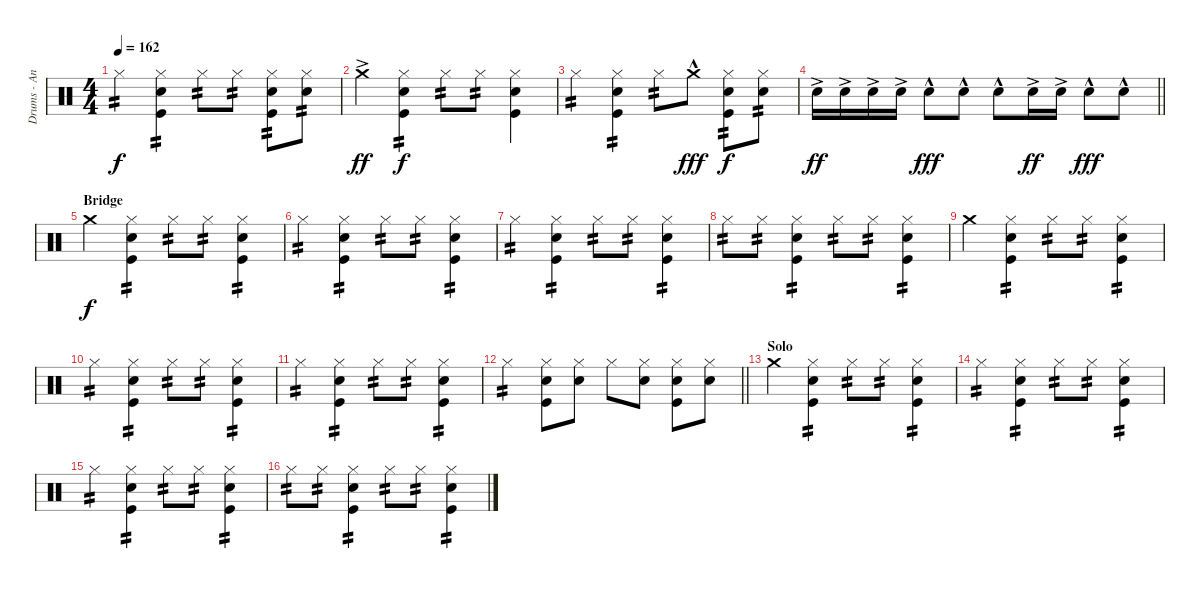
\track ("Drums - Andriushkin" "Drums - An") {instrument percussion}
\staff {score}
\articulation defaults
\ts (4 4)
\tempo 162
\clef neutral
\ks c "Hi-Hat (closed)".4{tp 2 dy f}
("Hi-Hat (closed)" "Electric Snare (hit)" "Kick (hit)").4{tp 2} "Hi-Hat (closed)".8{tp 2} "Hi-Hat (closed)".8{tp 2} ("Hi-Hat (closed)" "Electric Snare (hit)" "Kick (hit)").8{tp 2} ("Hi-Hat (closed)" "Electric Snare (hit)").8{tp 2} |
"Crash medium (hit)"{ac}.4{dy ff} ("Hi-Hat (closed)" "Electric Snare (hit)" "Kick (hit)").4{tp 2 dy f} "Hi-Hat (closed)".8{tp 2} "Hi-Hat (closed)".8{tp 2} ("Hi-Hat (closed)" "Electric Snare (hit)" "Kick (hit)").4 |
"Hi-Hat (closed)".4{tp 2} ("Hi-Hat (closed)" "Electric Snare (hit)" "Kick (hit)").4{tp 2} "Hi-Hat (closed)".8{tp 2} "Crash medium (hit)"{hac}.8{dy fff} ("Hi-Hat (closed)" "Electric Snare (hit)" "Kick (hit)").8{tp 2 dy f} ("Hi-Hat (closed)" "Electric Snare (hit)").8{tp 2} |
\barLineRight lightlight "Electric Snare (hit)"{ac}.16{dy ff} "Electric Snare (hit)"{ac}.16 "Electric Snare (hit)"{ac}.16 "Electric Snare (hit)"{ac}.16 "Electric Snare (hit)"{hac}.8{dy fff} "Electric Snare (hit)"{hac}.8 "Electric Snare (hit)"{hac}.8 "Electric Snare (hit)"{ac}.16{dy ff} "Electric Snare (hit)"{ac}.16 "Electric Snare (hit)"{hac}.8{dy fff} "Electric Snare (hit)"{hac}.8
|
\section ("" "Bridge")
"Crash medium (hit)".4{dy f} ("Hi-Hat (closed)" "Electric Snare (hit)" "Kick (hit)").4{tp 2} "Hi-Hat (closed)".8{tp 2} "Hi-Hat (closed)".8{tp 2} ("Hi-Hat (closed)" "Electric Snare (hit)" "Kick (hit)").4{tp 2} |
"Hi-Hat (closed)".4{tp 2} ("Hi-Hat (closed)" "Electric Snare (hit)" "Kick (hit)").4{tp 2} "Hi-Hat (closed)".8{tp 2} "Hi-Hat (closed)".8{tp 2} ("Hi-Hat (closed)" "Electric Snare (hit)" "Kick (hit)").4{tp 2} |
"Hi-Hat (closed)".4{tp 2} ("Hi-Hat (closed)" "Electric Snare (hit)" "Kick (hit)").4{tp 2} "Hi-Hat (closed)".8{tp 2} "Hi-Hat (closed)".8{tp 2} ("Hi-Hat (closed)" "Electric Snare (hit)" "Kick (hit)").4{tp 2} |
"Hi-Hat (closed)".8{tp 2} "Hi-Hat (closed)".8{tp 2} ("Hi-Hat (closed)" "Electric Snare (hit)" "Kick (hit)").4{tp 2} "Hi-Hat (closed)".8{tp 2} "Hi-Hat (closed)".8{tp 2} ("Hi-Hat (closed)" "Electric Snare (hit)" "Kick (hit)").4{tp 2} |
"Crash medium (hit)".4 ("Hi-Hat (closed)" "Electric Snare (hit)" "Kick (hit)").4{tp 2} "Hi-Hat (closed)".8{tp 2} "Hi-Hat (closed)".8{tp 2} ("Hi-Hat (closed)" "Electric Snare (hit)" "Kick (hit)").4{tp 2} |
"Hi-Hat (closed)".4{tp 2} ("Hi-Hat (closed)" "Electric Snare (hit)" "Kick (hit)").4{tp 2} "Hi-Hat (closed)".8{tp 2} "Hi-Hat (closed)".8{tp 2} ("Hi-Hat (closed)" "Electric Snare (hit)" "Kick (hit)").4{tp 2} |
"Hi-Hat (closed)".4{tp 2} ("Hi-Hat (closed)" "Electric Snare (hit)" "Kick (hit)").4{tp 2} "Hi-Hat (closed)".8{tp 2} "Hi-Hat (closed)".8{tp 2} ("Hi-Hat (closed)" "Electric Snare (hit)" "Kick (hit)").4{tp 2} |
\barLineRight lightlight "Hi-Hat (closed)".4{tp 2}
("Hi-Hat (closed)" "Electric Snare (hit)" "Kick (hit)").8 ("Hi-Hat (closed)" "Electric Snare (hit)").8 "Hi-Hat (closed)".8 ("Hi-Hat (closed)" "Electric Snare (hit)").8 ("Hi-Hat (closed)" "Electric Snare (hit)" "Kick (hit)").8 ("Hi-Hat (closed)" "Electric Snare (hit)").8 |
\section ("" "Solo")
"Crash medium (hit)".4 ("Hi-Hat (closed)" "Electric Snare (hit)" "Kick (hit)").4{tp 2} "Hi-Hat (closed)".8{tp 2} "Hi-Hat (closed)".8{tp 2} ("Hi-Hat (closed)" "Electric Snare (hit)" "Kick (hit)").4{tp 2} |
"Hi-Hat (closed)".4{tp 2} ("Hi-Hat (closed)" "Electric Snare (hit)" "Kick (hit)").4{tp 2} "Hi-Hat (closed)".8{tp 2} "Hi-Hat (closed)".8{tp 2} ("Hi-Hat (closed)" "Electric Snare (hit)" "Kick (hit)").4{tp 2} |
"Hi-Hat (closed)".4{tp 2} ("Hi-Hat (closed)" "Electric Snare (hit)" "Kick (hit)").4{tp 2} "Hi-Hat (closed)".8{tp 2} "Hi-Hat (closed)".8{tp 2} ("Hi-Hat (closed)" "Electric Snare (hit)" "Kick (hit)").4{tp 2} |
"Hi-Hat (closed)".8{tp 2} "Hi-Hat (closed)".8{tp 2} ("Hi-Hat (closed)" "Electric Snare (hit)" "Kick (hit)").4{tp 2} "Hi-Hat (closed)".8{tp 2} "Hi-Hat (closed)".8{tp 2} ("Hi-Hat (closed)" "Electric Snare (hit)" "Kick (hit)").4{tp 2}
